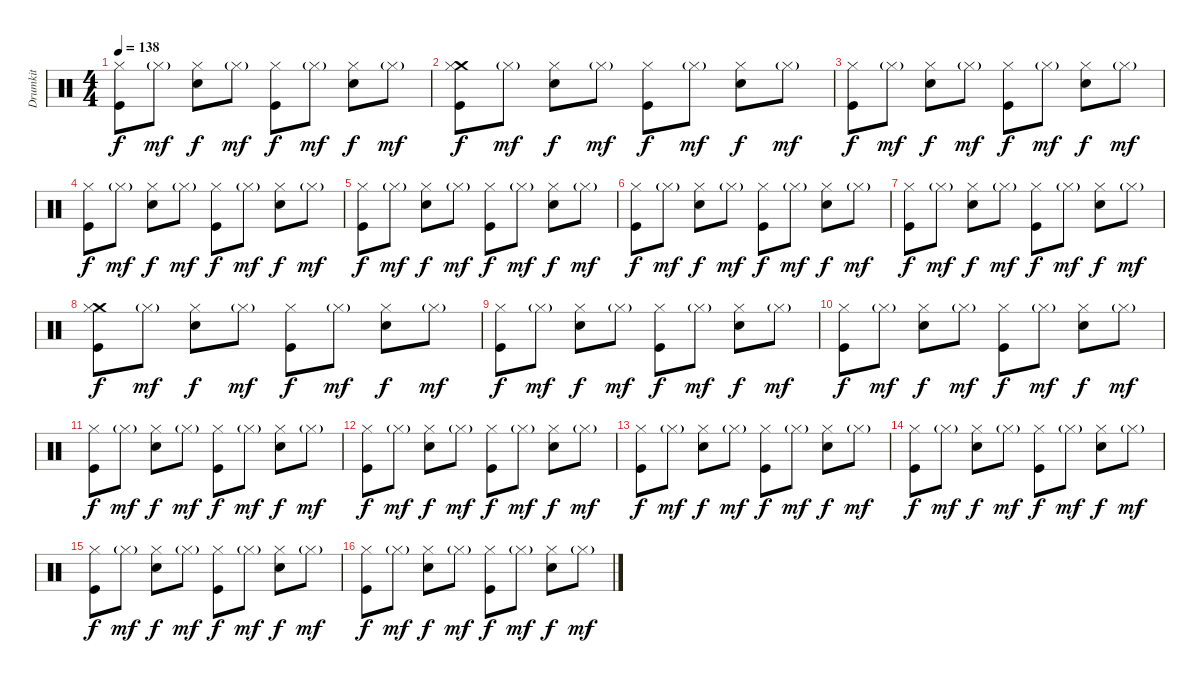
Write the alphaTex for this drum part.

\track ("Drumkit" "Drumkit") {instrument percussion}
\staff {score}
\articulation defaults
\ts (4 4)
\tempo 138
\clef neutral
\ks c
("Hi-Hat (closed)" "Kick (hit)").8{dy f} "Hi-Hat (closed)"{g}.8{dy mf} ("Hi-Hat (closed)" "Snare (hit) 2").8{dy f} "Hi-Hat (closed)"{g}.8{dy mf} ("Hi-Hat (closed)" "Kick (hit)").8{dy f} "Hi-Hat (closed)"{g}.8{dy mf} ("Hi-Hat (closed)" "Snare (hit) 2").8{dy f} "Hi-Hat (closed)"{g}.8{dy mf} |
("Crash medium (hit)" "Hi-Hat (closed)" "Kick (hit)").8{dy f} "Hi-Hat (closed)"{g}.8{dy mf} ("Hi-Hat (closed)" "Snare (hit) 2").8{dy f} "Hi-Hat (closed)"{g}.8{dy mf} ("Hi-Hat (closed)" "Kick (hit)").8{dy f} "Hi-Hat (closed)"{g}.8{dy mf} ("Hi-Hat (closed)" "Snare (hit) 2").8{dy f} "Hi-Hat (closed)"{g}.8{dy mf} |
("Hi-Hat (closed)" "Kick (hit)").8{dy f} "Hi-Hat (closed)"{g}.8{dy mf} ("Hi-Hat (closed)" "Snare (hit) 2").8{dy f} "Hi-Hat (closed)"{g}.8{dy mf} ("Hi-Hat (closed)" "Kick (hit)").8{dy f} "Hi-Hat (closed)"{g}.8{dy mf} ("Hi-Hat (closed)" "Snare (hit) 2").8{dy f} "Hi-Hat (closed)"{g}.8{dy mf} |
("Hi-Hat (closed)" "Kick (hit)").8{dy f} "Hi-Hat (closed)"{g}.8{dy mf} ("Hi-Hat (closed)" "Snare (hit) 2").8{dy f} "Hi-Hat (closed)"{g}.8{dy mf} ("Hi-Hat (closed)" "Kick (hit)").8{dy f} "Hi-Hat (closed)"{g}.8{dy mf} ("Hi-Hat (closed)" "Snare (hit) 2").8{dy f} "Hi-Hat (closed)"{g}.8{dy mf} |
("Hi-Hat (closed)" "Kick (hit)").8{dy f} "Hi-Hat (closed)"{g}.8{dy mf} ("Hi-Hat (closed)" "Snare (hit) 2").8{dy f} "Hi-Hat (closed)"{g}.8{dy mf} ("Hi-Hat (closed)" "Kick (hit)").8{dy f} "Hi-Hat (closed)"{g}.8{dy mf} ("Hi-Hat (closed)" "Snare (hit) 2").8{dy f} "Hi-Hat (closed)"{g}.8{dy mf} |
("Hi-Hat (closed)" "Kick (hit)").8{dy f} "Hi-Hat (closed)"{g}.8{dy mf} ("Hi-Hat (closed)" "Snare (hit) 2").8{dy f} "Hi-Hat (closed)"{g}.8{dy mf} ("Hi-Hat (closed)" "Kick (hit)").8{dy f} "Hi-Hat (closed)"{g}.8{dy mf} ("Hi-Hat (closed)" "Snare (hit) 2").8{dy f} "Hi-Hat (closed)"{g}.8{dy mf} |
("Hi-Hat (closed)" "Kick (hit)").8{dy f} "Hi-Hat (closed)"{g}.8{dy mf} ("Hi-Hat (closed)" "Snare (hit) 2").8{dy f} "Hi-Hat (closed)"{g}.8{dy mf} ("Hi-Hat (closed)" "Kick (hit)").8{dy f} "Hi-Hat (closed)"{g}.8{dy mf} ("Hi-Hat (closed)" "Snare (hit) 2").8{dy f} "Hi-Hat (closed)"{g}.8{dy mf} |
("Crash medium (hit)" "Hi-Hat (closed)" "Kick (hit)").8{dy f} "Hi-Hat (closed)"{g}.8{dy mf} ("Hi-Hat (closed)" "Snare (hit) 2").8{dy f} "Hi-Hat (closed)"{g}.8{dy mf} ("Hi-Hat (closed)" "Kick (hit)").8{dy f} "Hi-Hat (closed)"{g}.8{dy mf} ("Hi-Hat (closed)" "Snare (hit) 2").8{dy f} "Hi-Hat (closed)"{g}.8{dy mf} |
("Hi-Hat (closed)" "Kick (hit)").8{dy f} "Hi-Hat (closed)"{g}.8{dy mf} ("Hi-Hat (closed)" "Snare (hit) 2").8{dy f} "Hi-Hat (closed)"{g}.8{dy mf} ("Hi-Hat (closed)" "Kick (hit)").8{dy f} "Hi-Hat (closed)"{g}.8{dy mf} ("Hi-Hat (closed)" "Snare (hit) 2").8{dy f} "Hi-Hat (closed)"{g}.8{dy mf} |
("Hi-Hat (closed)" "Kick (hit)").8{dy f} "Hi-Hat (closed)"{g}.8{dy mf} ("Hi-Hat (closed)" "Snare (hit) 2").8{dy f} "Hi-Hat (closed)"{g}.8{dy mf} ("Hi-Hat (closed)" "Kick (hit)").8{dy f} "Hi-Hat (closed)"{g}.8{dy mf} ("Hi-Hat (closed)" "Snare (hit) 2").8{dy f} "Hi-Hat (closed)"{g}.8{dy mf} |
("Hi-Hat (closed)" "Kick (hit)").8{dy f} "Hi-Hat (closed)"{g}.8{dy mf} ("Hi-Hat (closed)" "Snare (hit) 2").8{dy f} "Hi-Hat (closed)"{g}.8{dy mf} ("Hi-Hat (closed)" "Kick (hit)").8{dy f} "Hi-Hat (closed)"{g}.8{dy mf} ("Hi-Hat (closed)" "Snare (hit) 2").8{dy f} "Hi-Hat (closed)"{g}.8{dy mf} |
("Hi-Hat (closed)" "Kick (hit)").8{dy f} "Hi-Hat (closed)"{g}.8{dy mf} ("Hi-Hat (closed)" "Snare (hit) 2").8{dy f} "Hi-Hat (closed)"{g}.8{dy mf} ("Hi-Hat (closed)" "Kick (hit)").8{dy f} "Hi-Hat (closed)"{g}.8{dy mf} ("Hi-Hat (closed)" "Snare (hit) 2").8{dy f} "Hi-Hat (closed)"{g}.8{dy mf} |
("Hi-Hat (closed)" "Kick (hit)").8{dy f} "Hi-Hat (closed)"{g}.8{dy mf} ("Hi-Hat (closed)" "Snare (hit) 2").8{dy f} "Hi-Hat (closed)"{g}.8{dy mf} ("Hi-Hat (closed)" "Kick (hit)").8{dy f} "Hi-Hat (closed)"{g}.8{dy mf} ("Hi-Hat (closed)" "Snare (hit) 2").8{dy f} "Hi-Hat (closed)"{g}.8{dy mf} |
("Hi-Hat (closed)" "Kick (hit)").8{dy f} "Hi-Hat (closed)"{g}.8{dy mf} ("Hi-Hat (closed)" "Snare (hit) 2").8{dy f} "Hi-Hat (closed)"{g}.8{dy mf} ("Hi-Hat (closed)" "Kick (hit)").8{dy f} "Hi-Hat (closed)"{g}.8{dy mf} ("Hi-Hat (closed)" "Snare (hit) 2").8{dy f} "Hi-Hat (closed)"{g}.8{dy mf} |
("Hi-Hat (closed)" "Kick (hit)").8{dy f} "Hi-Hat (closed)"{g}.8{dy mf} ("Hi-Hat (closed)" "Snare (hit) 2").8{dy f} "Hi-Hat (closed)"{g}.8{dy mf} ("Hi-Hat (closed)" "Kick (hit)").8{dy f} "Hi-Hat (closed)"{g}.8{dy mf} ("Hi-Hat (closed)" "Snare (hit) 2").8{dy f} "Hi-Hat (closed)"{g}.8{dy mf} |
("Hi-Hat (closed)" "Kick (hit)").8{dy f} "Hi-Hat (closed)"{g}.8{dy mf} ("Hi-Hat (closed)" "Snare (hit) 2").8{dy f} "Hi-Hat (closed)"{g}.8{dy mf} ("Hi-Hat (closed)" "Kick (hit)").8{dy f} "Hi-Hat (closed)"{g}.8{dy mf} ("Hi-Hat (closed)" "Snare (hit) 2").8{dy f} "Hi-Hat (closed)"{g}.8{dy mf}
